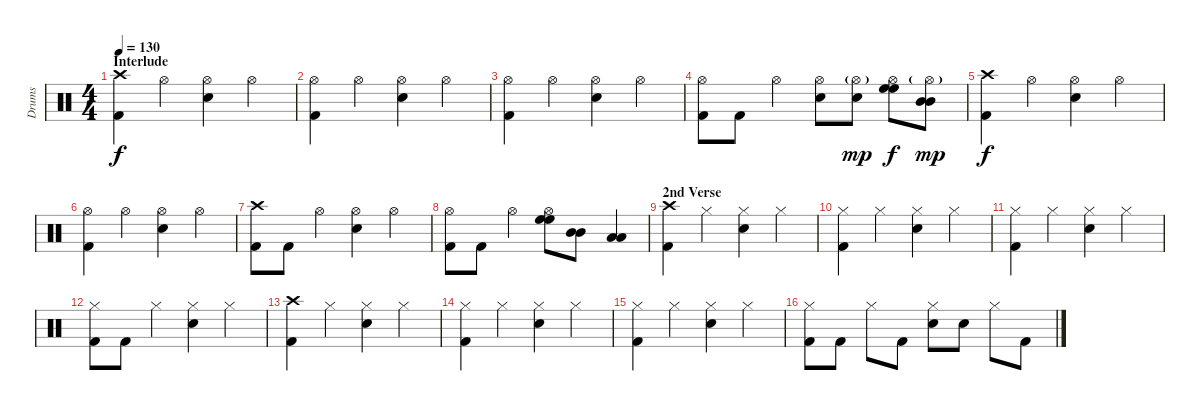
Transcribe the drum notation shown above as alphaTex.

\track ("Drums" "Drums") {instrument percussion}
\staff {score}
\articulation defaults
\ts (4 4)
\section ("" "Interlude")
\tempo 130
\clef neutral
\ks c
("Crash high (hit)" "Kick (hit) 2").4{dy f} "Hi-Hat (open)".4 ("Hi-Hat (open)" "Snare (hit) 2").4 "Hi-Hat (open)".4 |
("Hi-Hat (open)" "Kick (hit) 2").4 "Hi-Hat (open)".4 ("Hi-Hat (open)" "Snare (hit) 2").4 "Hi-Hat (open)".4 |
("Hi-Hat (open)" "Kick (hit) 2").4 "Hi-Hat (open)".4 ("Hi-Hat (open)" "Snare (hit) 2").4 "Hi-Hat (open)".4 |
("Hi-Hat (open)" "Kick (hit) 2").8 "Kick (hit) 2".8 "Hi-Hat (open)".4 ("Hi-Hat (open)" "Snare (hit) 2").8 ("Hi-Hat (open)"{g} "Snare (hit) 2").8{dy mp} ("Hi-Hat (open)" "High Floor Tom (hit)" "High Floor Tom (hit)").8{dy f} ("Hi-Hat (open)"{g} "Mid Tom (hit)" "Mid Tom (hit)").8{dy mp} |
("Crash high (hit)" "Kick (hit) 2").4{dy f} "Hi-Hat (open)".4 ("Hi-Hat (open)" "Snare (hit) 2").4 "Hi-Hat (open)".4 |
("Hi-Hat (open)" "Kick (hit) 2").4 "Hi-Hat (open)".4 ("Hi-Hat (open)" "Snare (hit) 2").4 "Hi-Hat (open)".4 |
("Crash high (hit)" "Kick (hit) 2").8 "Kick (hit) 2".8 "Hi-Hat (open)".4 ("Hi-Hat (open)" "Snare (hit) 2").4 "Hi-Hat (open)".4 |
("Hi-Hat (open)" "Kick (hit) 2").8 "Kick (hit) 2".8 "Hi-Hat (open)".4 ("Hi-Hat (open)" "High Floor Tom (hit)" "High Floor Tom (hit)").8 ("Mid Tom (hit)" "Mid Tom (hit)").8 ("Low Tom (hit)" "Low Tom (hit)").4 |
\section ("" "2nd Verse")
("Crash high (hit)" "Kick (hit) 2").4 "Hi-Hat (closed)".4 ("Hi-Hat (closed)" "Snare (hit) 2").4 "Hi-Hat (closed)".4 |
("Hi-Hat (closed)" "Kick (hit) 2").4 "Hi-Hat (closed)".4 ("Hi-Hat (closed)" "Snare (hit) 2").4 "Hi-Hat (closed)".4 |
("Hi-Hat (closed)" "Kick (hit) 2").4 "Hi-Hat (closed)".4 ("Hi-Hat (closed)" "Snare (hit) 2").4 "Hi-Hat (closed)".4 |
("Hi-Hat (closed)" "Kick (hit) 2").8 "Kick (hit) 2".8 "Hi-Hat (closed)".4 ("Hi-Hat (closed)" "Snare (hit) 2").4 "Hi-Hat (closed)".4 |
("Crash high (hit)" "Kick (hit) 2").4 "Hi-Hat (closed)".4 ("Hi-Hat (closed)" "Snare (hit) 2").4 "Hi-Hat (closed)".4 |
("Hi-Hat (closed)" "Kick (hit) 2").4 "Hi-Hat (closed)".4 ("Hi-Hat (closed)" "Snare (hit) 2").4 "Hi-Hat (closed)".4 |
("Hi-Hat (closed)" "Kick (hit) 2").4 "Hi-Hat (closed)".4 ("Hi-Hat (closed)" "Snare (hit) 2").4 "Hi-Hat (closed)".4 |
("Hi-Hat (closed)" "Kick (hit) 2").8 "Kick (hit) 2".8 "Hi-Hat (closed)".8 "Kick (hit) 2".8 ("Hi-Hat (closed)" "Snare (hit) 2").8 "Snare (hit) 2".8 "Hi-Hat (closed)".8 "Kick (hit) 2".8
